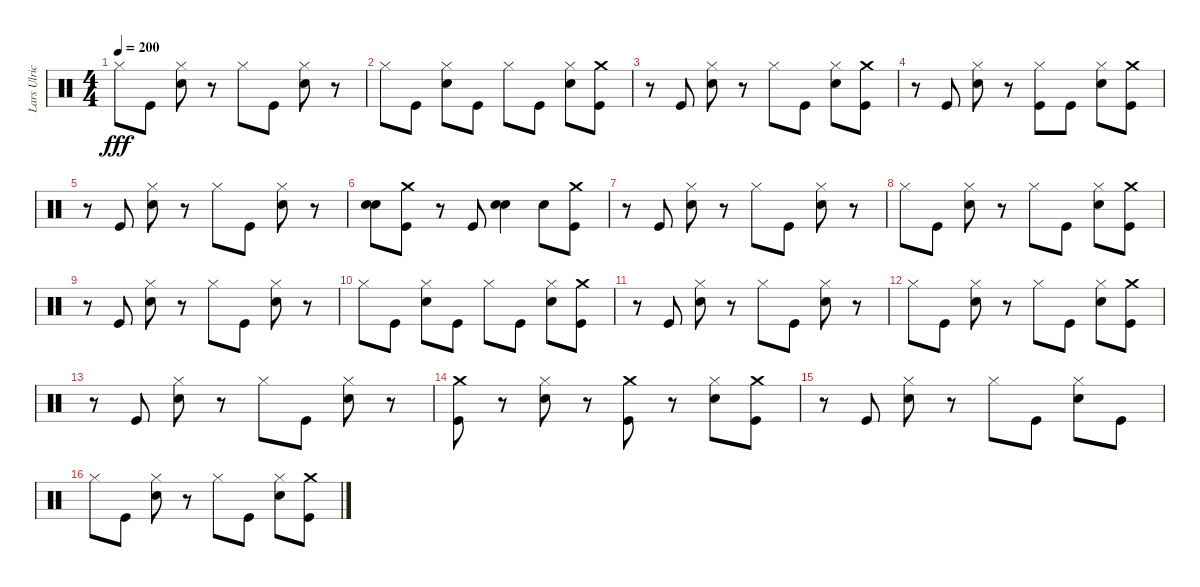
\track ("Lars Ulrich" "Lars Ulric") {instrument percussion}
\staff {score}
\articulation defaults
\ts (4 4)
\tempo 200
\clef neutral
\ks c "Hi-Hat (closed)".8{dy fff} "Kick (hit)".8
("Hi-Hat (closed)" "Snare (hit) 2").8 r.8 "Hi-Hat (closed)".8 "Kick (hit)".8 ("Hi-Hat (closed)" "Snare (hit) 2").8 r.8 |
"Hi-Hat (closed)".8 "Kick (hit)".8 ("Hi-Hat (closed)" "Snare (hit) 2").8 "Kick (hit)".8 "Hi-Hat (closed)".8 "Kick (hit)".8 ("Hi-Hat (closed)" "Snare (hit) 2").8 ("Crash medium (hit)" "Kick (hit)").8 |
r.8 "Kick (hit)".8 ("Hi-Hat (closed)" "Snare (hit) 2").8 r.8 "Hi-Hat (closed)".8 "Kick (hit)".8 ("Hi-Hat (closed)" "Snare (hit) 2").8 ("Crash medium (hit)" "Kick (hit)").8 |
r.8 "Kick (hit)".8 ("Hi-Hat (closed)" "Snare (hit) 2").8 r.8 ("Kick (hit)" "Hi-Hat (closed)").8 "Kick (hit)".8 ("Hi-Hat (closed)" "Snare (hit) 2").8 ("Crash medium (hit)" "Kick (hit)").8 |
r.8 "Kick (hit)".8 ("Hi-Hat (closed)" "Snare (hit) 2").8 r.8 "Hi-Hat (closed)".8 "Kick (hit)".8 ("Hi-Hat (closed)" "Snare (hit) 2").8 r.8 |
("Snare (hit) 2" "Snare (hit) 2").8 ("Kick (hit)" "Crash medium (hit)").8 r.8 "Kick (hit)".8 ("Snare (hit) 2" "Snare (hit) 2").4 "Snare (hit) 2".8 ("Crash medium (hit)" "Kick (hit)").8 |
r.8 "Kick (hit)".8 ("Hi-Hat (closed)" "Snare (hit) 2").8 r.8 "Hi-Hat (closed)".8 "Kick (hit)".8 ("Hi-Hat (closed)" "Snare (hit) 2").8 r.8 |
"Hi-Hat (closed)".8 "Kick (hit)".8 ("Hi-Hat (closed)" "Snare (hit) 2").8 r.8 "Hi-Hat (closed)".8 "Kick (hit)".8 ("Hi-Hat (closed)" "Snare (hit) 2").8 ("Crash medium (hit)" "Kick (hit)").8 |
r.8 "Kick (hit)".8 ("Hi-Hat (closed)" "Snare (hit) 2").8 r.8 "Hi-Hat (closed)".8 "Kick (hit)".8 ("Hi-Hat (closed)" "Snare (hit) 2").8 r.8 |
"Hi-Hat (closed)".8 "Kick (hit)".8 ("Hi-Hat (closed)" "Snare (hit) 2").8 "Kick (hit)".8 "Hi-Hat (closed)".8 "Kick (hit)".8 ("Hi-Hat (closed)" "Snare (hit) 2").8 ("Crash medium (hit)" "Kick (hit)").8 |
r.8 "Kick (hit)".8 ("Hi-Hat (closed)" "Snare (hit) 2").8 r.8 "Hi-Hat (closed)".8 "Kick (hit)".8 ("Hi-Hat (closed)" "Snare (hit) 2").8 r.8 |
"Hi-Hat (closed)".8 "Kick (hit)".8 ("Hi-Hat (closed)" "Snare (hit) 2").8 r.8 "Hi-Hat (closed)".8 "Kick (hit)".8 ("Hi-Hat (closed)" "Snare (hit) 2").8 ("Crash medium (hit)" "Kick (hit)").8 |
r.8 "Kick (hit)".8 ("Hi-Hat (closed)" "Snare (hit) 2").8 r.8 "Hi-Hat (closed)".8 "Kick (hit)".8 ("Hi-Hat (closed)" "Snare (hit) 2").8 r.8 |
("Crash medium (hit)" "Kick (hit)").8 r.8 ("Snare (hit) 2" "Hi-Hat (closed)").8 r.8 ("Crash medium (hit)" "Kick (hit)").8 r.8 ("Hi-Hat (closed)" "Snare (hit) 2").8 ("Crash medium (hit)" "Kick (hit)").8 |
r.8 "Kick (hit)".8 ("Hi-Hat (closed)" "Snare (hit) 2").8 r.8 "Hi-Hat (closed)".8 "Kick (hit)".8 ("Snare (hit) 2" "Hi-Hat (closed)").8 "Kick (hit)".8 |
"Hi-Hat (closed)".8 "Kick (hit)".8 ("Hi-Hat (closed)" "Snare (hit) 2").8 r.8 "Hi-Hat (closed)".8 "Kick (hit)".8 ("Hi-Hat (closed)" "Snare (hit) 2").8 ("Crash medium (hit)" "Kick (hit)").8
